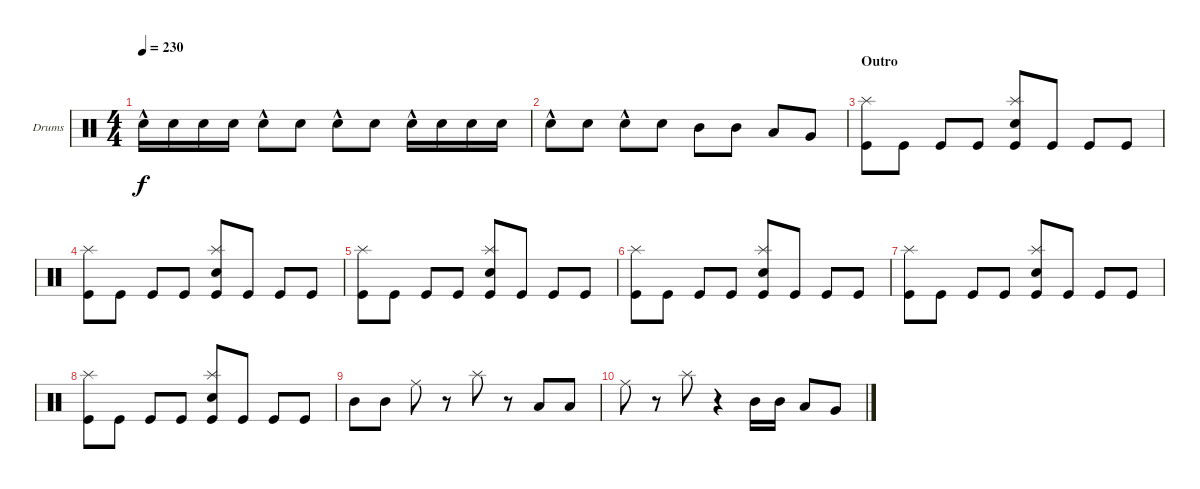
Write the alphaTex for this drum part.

\defaultSystemsLayout 4
\bracketExtendMode groupsimilarinstruments
\firstSystemTrackNameOrientation horizontal
\otherSystemsTrackNameOrientation horizontal
\track ("Drumkit" "Drums") {instrument percussion}
\staff {score}
\articulation defaults
\ts (4 4)
\tempo 230
\clef neutral
\ks c "Snare (hit) 2"{hac}.16{dy f} "Snare (hit) 2".16 "Snare (hit) 2".16 "Snare (hit) 2".16 "Snare (hit) 2"{hac}.8 "Snare (hit) 2".8 "Snare (hit) 2"{hac}.8 "Snare (hit) 2".8 "Snare (hit) 2"{hac}.16 "Snare (hit) 2".16 "Snare (hit) 2".16 "Snare (hit) 2".16
|
"Snare (hit) 2"{hac}.8 "Snare (hit) 2".8 "Snare (hit) 2"{hac}.8 "Snare (hit) 2".8 "Mid Tom (hit)".8 "Mid Tom (hit)".8 "Low Tom (hit)".8 "Very Low Tom (hit)".8 |
\section ("" "Outro")
("Splash (hit)" "Kick (hit)").8 "Kick (hit)".8 "Kick (hit)".8 "Kick (hit)".8 ("Snare (hit) 2" "Splash (hit)" "Kick (hit)").8 "Kick (hit)".8 "Kick (hit)".8 "Kick (hit)".8 |
("Splash (hit)" "Kick (hit)").8 "Kick (hit)".8 "Kick (hit)".8 "Kick (hit)".8 ("Snare (hit) 2" "Splash (hit)" "Kick (hit)").8 "Kick (hit)".8 "Kick (hit)".8 "Kick (hit)".8 |
("Splash (hit)" "Kick (hit)").8 "Kick (hit)".8 "Kick (hit)".8 "Kick (hit)".8 ("Snare (hit) 2" "Splash (hit)" "Kick (hit)").8 "Kick (hit)".8 "Kick (hit)".8 "Kick (hit)".8 |
("Splash (hit)" "Kick (hit)").8 "Kick (hit)".8 "Kick (hit)".8 "Kick (hit)".8 ("Snare (hit) 2" "Splash (hit)" "Kick (hit)").8 "Kick (hit)".8 "Kick (hit)".8 "Kick (hit)".8 |
("Splash (hit)" "Kick (hit)").8 "Kick (hit)".8 "Kick (hit)".8 "Kick (hit)".8 ("Snare (hit) 2" "Splash (hit)" "Kick (hit)").8 "Kick (hit)".8 "Kick (hit)".8 "Kick (hit)".8 |
("Splash (hit)" "Kick (hit)").8 "Kick (hit)".8 "Kick (hit)".8 "Kick (hit)".8 ("Snare (hit) 2" "Splash (hit)" "Kick (hit)").8 "Kick (hit)".8 "Kick (hit)".8 "Kick (hit)".8 |
"Mid Tom (hit)".8 "Mid Tom (hit)".8 "Ride (middle)".8 r.8 "Splash (hit)".8 r.8 "Low Tom (hit)".8 "Low Tom (hit)".8 |
"Ride (middle)".8 r.8 "Splash (hit)".8 r.4 "Mid Tom (hit)".16 "Mid Tom (hit)".16 "Low Tom (hit)".8 "Very Low Tom (hit)".8
